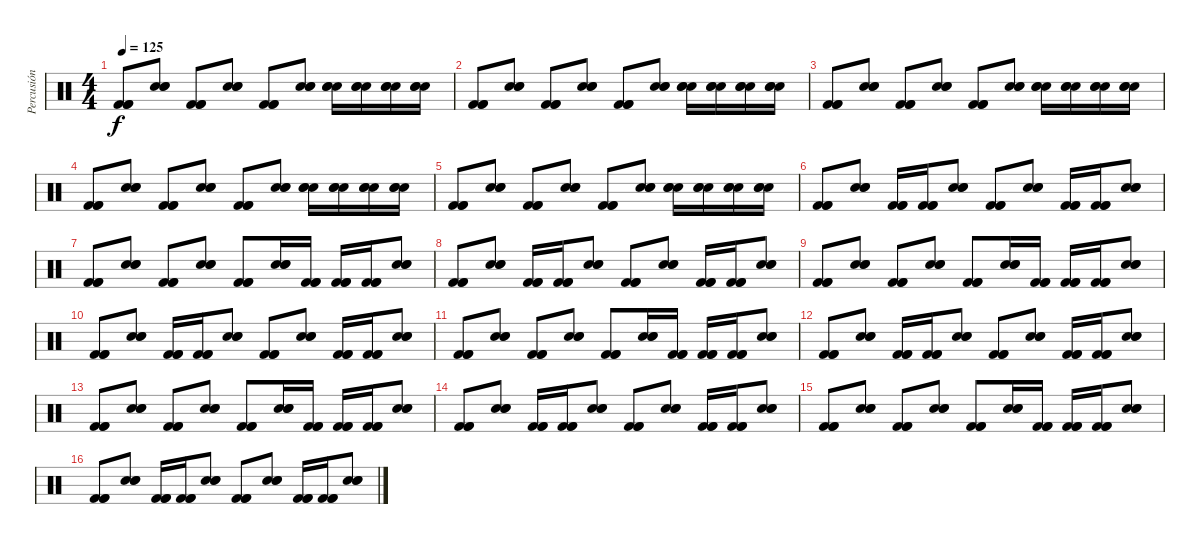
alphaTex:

\track ("Percusión" "Percusión") {instrument percussion}
\staff {score}
\articulation defaults
\ts (4 4)
\tempo 125
\clef neutral
\ks c
("Kick (hit) 2" "Kick (hit) 2" "Kick (hit) 2").8{dy f} ("Electric Snare (hit)" "Electric Snare (hit)" "Electric Snare (hit)").8 ("Kick (hit) 2" "Kick (hit) 2" "Kick (hit) 2").8 ("Electric Snare (hit)" "Electric Snare (hit)" "Electric Snare (hit)").8 ("Kick (hit) 2" "Kick (hit) 2" "Kick (hit) 2").8 ("Electric Snare (hit)" "Electric Snare (hit)" "Electric Snare (hit)").8 ("Electric Snare (hit)" "Electric Snare (hit)" "Electric Snare (hit)").16 ("Electric Snare (hit)" "Electric Snare (hit)" "Electric Snare (hit)").16 ("Electric Snare (hit)" "Electric Snare (hit)" "Electric Snare (hit)").16 ("Electric Snare (hit)" "Electric Snare (hit)" "Electric Snare (hit)").16 |
("Kick (hit) 2" "Kick (hit) 2" "Kick (hit) 2").8 ("Electric Snare (hit)" "Electric Snare (hit)" "Electric Snare (hit)").8 ("Kick (hit) 2" "Kick (hit) 2" "Kick (hit) 2").8 ("Electric Snare (hit)" "Electric Snare (hit)" "Electric Snare (hit)").8 ("Kick (hit) 2" "Kick (hit) 2" "Kick (hit) 2").8 ("Electric Snare (hit)" "Electric Snare (hit)" "Electric Snare (hit)").8 ("Electric Snare (hit)" "Electric Snare (hit)" "Electric Snare (hit)").16 ("Electric Snare (hit)" "Electric Snare (hit)" "Electric Snare (hit)").16 ("Electric Snare (hit)" "Electric Snare (hit)" "Electric Snare (hit)").16 ("Electric Snare (hit)" "Electric Snare (hit)" "Electric Snare (hit)").16 |
("Kick (hit) 2" "Kick (hit) 2" "Kick (hit) 2").8 ("Electric Snare (hit)" "Electric Snare (hit)" "Electric Snare (hit)").8 ("Kick (hit) 2" "Kick (hit) 2" "Kick (hit) 2").8 ("Electric Snare (hit)" "Electric Snare (hit)" "Electric Snare (hit)").8 ("Kick (hit) 2" "Kick (hit) 2" "Kick (hit) 2").8 ("Electric Snare (hit)" "Electric Snare (hit)" "Electric Snare (hit)").8 ("Electric Snare (hit)" "Electric Snare (hit)" "Electric Snare (hit)").16 ("Electric Snare (hit)" "Electric Snare (hit)" "Electric Snare (hit)").16 ("Electric Snare (hit)" "Electric Snare (hit)" "Electric Snare (hit)").16 ("Electric Snare (hit)" "Electric Snare (hit)" "Electric Snare (hit)").16 |
("Kick (hit) 2" "Kick (hit) 2" "Kick (hit) 2").8 ("Electric Snare (hit)" "Electric Snare (hit)" "Electric Snare (hit)").8 ("Kick (hit) 2" "Kick (hit) 2" "Kick (hit) 2").8 ("Electric Snare (hit)" "Electric Snare (hit)" "Electric Snare (hit)").8 ("Kick (hit) 2" "Kick (hit) 2" "Kick (hit) 2").8 ("Electric Snare (hit)" "Electric Snare (hit)" "Electric Snare (hit)").8 ("Electric Snare (hit)" "Electric Snare (hit)" "Electric Snare (hit)").16 ("Electric Snare (hit)" "Electric Snare (hit)" "Electric Snare (hit)").16 ("Electric Snare (hit)" "Electric Snare (hit)" "Electric Snare (hit)").16 ("Electric Snare (hit)" "Electric Snare (hit)" "Electric Snare (hit)").16 |
("Kick (hit) 2" "Kick (hit) 2" "Kick (hit) 2").8 ("Electric Snare (hit)" "Electric Snare (hit)" "Electric Snare (hit)").8 ("Kick (hit) 2" "Kick (hit) 2" "Kick (hit) 2").8 ("Electric Snare (hit)" "Electric Snare (hit)" "Electric Snare (hit)").8 ("Kick (hit) 2" "Kick (hit) 2" "Kick (hit) 2").8 ("Electric Snare (hit)" "Electric Snare (hit)" "Electric Snare (hit)").8 ("Electric Snare (hit)" "Electric Snare (hit)" "Electric Snare (hit)").16 ("Electric Snare (hit)" "Electric Snare (hit)" "Electric Snare (hit)").16 ("Electric Snare (hit)" "Electric Snare (hit)" "Electric Snare (hit)").16 ("Electric Snare (hit)" "Electric Snare (hit)" "Electric Snare (hit)").16 |
("Kick (hit) 2" "Kick (hit) 2" "Kick (hit) 2").8 ("Electric Snare (hit)" "Electric Snare (hit)" "Electric Snare (hit)").8 ("Kick (hit) 2" "Kick (hit) 2" "Kick (hit) 2").16 ("Kick (hit) 2" "Kick (hit) 2" "Kick (hit) 2").16 ("Electric Snare (hit)" "Electric Snare (hit)" "Electric Snare (hit)").8 ("Kick (hit) 2" "Kick (hit) 2" "Kick (hit) 2").8 ("Electric Snare (hit)" "Electric Snare (hit)" "Electric Snare (hit)").8 ("Kick (hit) 2" "Kick (hit) 2" "Kick (hit) 2").16 ("Kick (hit) 2" "Kick (hit) 2" "Kick (hit) 2").16 ("Electric Snare (hit)" "Electric Snare (hit)" "Electric Snare (hit)").8 |
("Kick (hit) 2" "Kick (hit) 2" "Kick (hit) 2").8 ("Electric Snare (hit)" "Electric Snare (hit)" "Electric Snare (hit)").8 ("Kick (hit) 2" "Kick (hit) 2" "Kick (hit) 2").8 ("Electric Snare (hit)" "Electric Snare (hit)" "Electric Snare (hit)").8 ("Kick (hit) 2" "Kick (hit) 2" "Kick (hit) 2").8 ("Electric Snare (hit)" "Electric Snare (hit)" "Electric Snare (hit)").16 ("Kick (hit) 2" "Kick (hit) 2" "Kick (hit) 2").16 ("Kick (hit) 2" "Kick (hit) 2" "Kick (hit) 2").16 ("Kick (hit) 2" "Kick (hit) 2" "Kick (hit) 2").16 ("Electric Snare (hit)" "Electric Snare (hit)" "Electric Snare (hit)").8 |
("Kick (hit) 2" "Kick (hit) 2" "Kick (hit) 2").8 ("Electric Snare (hit)" "Electric Snare (hit)" "Electric Snare (hit)").8 ("Kick (hit) 2" "Kick (hit) 2" "Kick (hit) 2").16 ("Kick (hit) 2" "Kick (hit) 2" "Kick (hit) 2").16 ("Electric Snare (hit)" "Electric Snare (hit)" "Electric Snare (hit)").8 ("Kick (hit) 2" "Kick (hit) 2" "Kick (hit) 2").8 ("Electric Snare (hit)" "Electric Snare (hit)" "Electric Snare (hit)").8 ("Kick (hit) 2" "Kick (hit) 2" "Kick (hit) 2").16 ("Kick (hit) 2" "Kick (hit) 2" "Kick (hit) 2").16 ("Electric Snare (hit)" "Electric Snare (hit)" "Electric Snare (hit)").8 |
("Kick (hit) 2" "Kick (hit) 2" "Kick (hit) 2").8 ("Electric Snare (hit)" "Electric Snare (hit)" "Electric Snare (hit)").8 ("Kick (hit) 2" "Kick (hit) 2" "Kick (hit) 2").8 ("Electric Snare (hit)" "Electric Snare (hit)" "Electric Snare (hit)").8 ("Kick (hit) 2" "Kick (hit) 2" "Kick (hit) 2").8 ("Electric Snare (hit)" "Electric Snare (hit)" "Electric Snare (hit)").16 ("Kick (hit) 2" "Kick (hit) 2" "Kick (hit) 2").16 ("Kick (hit) 2" "Kick (hit) 2" "Kick (hit) 2").16 ("Kick (hit) 2" "Kick (hit) 2" "Kick (hit) 2").16 ("Electric Snare (hit)" "Electric Snare (hit)" "Electric Snare (hit)").8 |
("Kick (hit) 2" "Kick (hit) 2" "Kick (hit) 2").8 ("Electric Snare (hit)" "Electric Snare (hit)" "Electric Snare (hit)").8 ("Kick (hit) 2" "Kick (hit) 2" "Kick (hit) 2").16 ("Kick (hit) 2" "Kick (hit) 2" "Kick (hit) 2").16 ("Electric Snare (hit)" "Electric Snare (hit)" "Electric Snare (hit)").8 ("Kick (hit) 2" "Kick (hit) 2" "Kick (hit) 2").8 ("Electric Snare (hit)" "Electric Snare (hit)" "Electric Snare (hit)").8 ("Kick (hit) 2" "Kick (hit) 2" "Kick (hit) 2").16 ("Kick (hit) 2" "Kick (hit) 2" "Kick (hit) 2").16 ("Electric Snare (hit)" "Electric Snare (hit)" "Electric Snare (hit)").8 |
("Kick (hit) 2" "Kick (hit) 2" "Kick (hit) 2").8 ("Electric Snare (hit)" "Electric Snare (hit)" "Electric Snare (hit)").8 ("Kick (hit) 2" "Kick (hit) 2" "Kick (hit) 2").8 ("Electric Snare (hit)" "Electric Snare (hit)" "Electric Snare (hit)").8 ("Kick (hit) 2" "Kick (hit) 2" "Kick (hit) 2").8 ("Electric Snare (hit)" "Electric Snare (hit)" "Electric Snare (hit)").16 ("Kick (hit) 2" "Kick (hit) 2" "Kick (hit) 2").16 ("Kick (hit) 2" "Kick (hit) 2" "Kick (hit) 2").16 ("Kick (hit) 2" "Kick (hit) 2" "Kick (hit) 2").16 ("Electric Snare (hit)" "Electric Snare (hit)" "Electric Snare (hit)").8 |
("Kick (hit) 2" "Kick (hit) 2" "Kick (hit) 2").8 ("Electric Snare (hit)" "Electric Snare (hit)" "Electric Snare (hit)").8 ("Kick (hit) 2" "Kick (hit) 2" "Kick (hit) 2").16 ("Kick (hit) 2" "Kick (hit) 2" "Kick (hit) 2").16 ("Electric Snare (hit)" "Electric Snare (hit)" "Electric Snare (hit)").8 ("Kick (hit) 2" "Kick (hit) 2" "Kick (hit) 2").8 ("Electric Snare (hit)" "Electric Snare (hit)" "Electric Snare (hit)").8 ("Kick (hit) 2" "Kick (hit) 2" "Kick (hit) 2").16 ("Kick (hit) 2" "Kick (hit) 2" "Kick (hit) 2").16 ("Electric Snare (hit)" "Electric Snare (hit)" "Electric Snare (hit)").8 |
("Kick (hit) 2" "Kick (hit) 2" "Kick (hit) 2").8 ("Electric Snare (hit)" "Electric Snare (hit)" "Electric Snare (hit)").8 ("Kick (hit) 2" "Kick (hit) 2" "Kick (hit) 2").8 ("Electric Snare (hit)" "Electric Snare (hit)" "Electric Snare (hit)").8 ("Kick (hit) 2" "Kick (hit) 2" "Kick (hit) 2").8 ("Electric Snare (hit)" "Electric Snare (hit)" "Electric Snare (hit)").16 ("Kick (hit) 2" "Kick (hit) 2" "Kick (hit) 2").16 ("Kick (hit) 2" "Kick (hit) 2" "Kick (hit) 2").16 ("Kick (hit) 2" "Kick (hit) 2" "Kick (hit) 2").16 ("Electric Snare (hit)" "Electric Snare (hit)" "Electric Snare (hit)").8 |
("Kick (hit) 2" "Kick (hit) 2" "Kick (hit) 2").8 ("Electric Snare (hit)" "Electric Snare (hit)" "Electric Snare (hit)").8 ("Kick (hit) 2" "Kick (hit) 2" "Kick (hit) 2").16 ("Kick (hit) 2" "Kick (hit) 2" "Kick (hit) 2").16 ("Electric Snare (hit)" "Electric Snare (hit)" "Electric Snare (hit)").8 ("Kick (hit) 2" "Kick (hit) 2" "Kick (hit) 2").8 ("Electric Snare (hit)" "Electric Snare (hit)" "Electric Snare (hit)").8 ("Kick (hit) 2" "Kick (hit) 2" "Kick (hit) 2").16 ("Kick (hit) 2" "Kick (hit) 2" "Kick (hit) 2").16 ("Electric Snare (hit)" "Electric Snare (hit)" "Electric Snare (hit)").8 |
("Kick (hit) 2" "Kick (hit) 2" "Kick (hit) 2").8 ("Electric Snare (hit)" "Electric Snare (hit)" "Electric Snare (hit)").8 ("Kick (hit) 2" "Kick (hit) 2" "Kick (hit) 2").8 ("Electric Snare (hit)" "Electric Snare (hit)" "Electric Snare (hit)").8 ("Kick (hit) 2" "Kick (hit) 2" "Kick (hit) 2").8 ("Electric Snare (hit)" "Electric Snare (hit)" "Electric Snare (hit)").16 ("Kick (hit) 2" "Kick (hit) 2" "Kick (hit) 2").16 ("Kick (hit) 2" "Kick (hit) 2" "Kick (hit) 2").16 ("Kick (hit) 2" "Kick (hit) 2" "Kick (hit) 2").16 ("Electric Snare (hit)" "Electric Snare (hit)" "Electric Snare (hit)").8 |
("Kick (hit) 2" "Kick (hit) 2" "Kick (hit) 2").8 ("Electric Snare (hit)" "Electric Snare (hit)" "Electric Snare (hit)").8 ("Kick (hit) 2" "Kick (hit) 2" "Kick (hit) 2").16 ("Kick (hit) 2" "Kick (hit) 2" "Kick (hit) 2").16 ("Electric Snare (hit)" "Electric Snare (hit)" "Electric Snare (hit)").8 ("Kick (hit) 2" "Kick (hit) 2" "Kick (hit) 2").8 ("Electric Snare (hit)" "Electric Snare (hit)" "Electric Snare (hit)").8 ("Kick (hit) 2" "Kick (hit) 2" "Kick (hit) 2").16 ("Kick (hit) 2" "Kick (hit) 2" "Kick (hit) 2").16 ("Electric Snare (hit)" "Electric Snare (hit)" "Electric Snare (hit)").8
